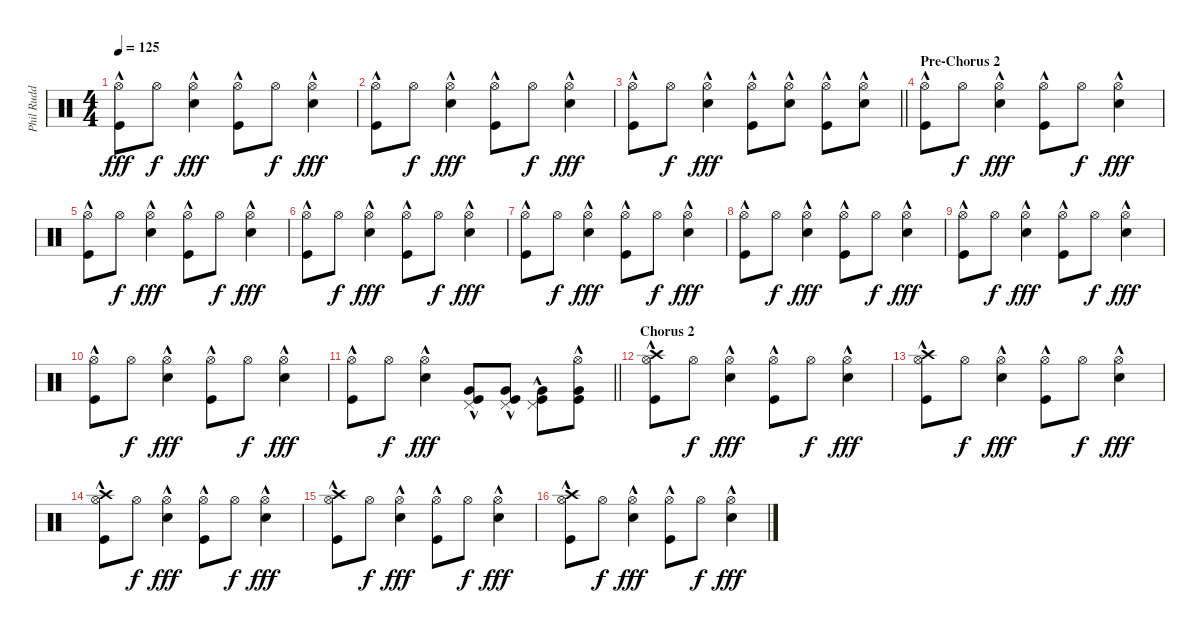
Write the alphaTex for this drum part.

\track ("Phil Rudd" "Phil Rudd") {instrument percussion}
\staff {score}
\articulation defaults
\ts (4 4)
\tempo 125
\clef neutral
\ks c
("Hi-Hat (open)" "Kick (hit)"{hac}).8{dy fff} "Hi-Hat (open)".8{dy f} ("Snare (hit) 2"{hac} "Hi-Hat (open)").4{dy fff} ("Hi-Hat (open)" "Kick (hit)"{hac}).8 "Hi-Hat (open)".8{dy f} ("Snare (hit) 2"{hac} "Hi-Hat (open)").4{dy fff} |
("Hi-Hat (open)" "Kick (hit)"{hac}).8 "Hi-Hat (open)".8{dy f} ("Snare (hit) 2"{hac} "Hi-Hat (open)").4{dy fff} ("Hi-Hat (open)" "Kick (hit)"{hac}).8 "Hi-Hat (open)".8{dy f} ("Snare (hit) 2"{hac} "Hi-Hat (open)").4{dy fff} |
\barLineRight lightlight
("Hi-Hat (open)" "Kick (hit)"{hac}).8 "Hi-Hat (open)".8{dy f} ("Snare (hit) 2"{hac} "Hi-Hat (open)").4{dy fff} ("Hi-Hat (open)"{hac} "Kick (hit)").8 ("Snare (hit) 2"{hac} "Hi-Hat (open)").8 ("Hi-Hat (open)"{hac} "Kick (hit)").8 ("Snare (hit) 2"{hac} "Hi-Hat (open)").8 |
\section ("" "Pre-Chorus 2")
("Hi-Hat (open)" "Kick (hit)"{hac}).8 "Hi-Hat (open)".8{dy f} ("Snare (hit) 2"{hac} "Hi-Hat (open)").4{dy fff} ("Hi-Hat (open)" "Kick (hit)"{hac}).8 "Hi-Hat (open)".8{dy f} ("Snare (hit) 2"{hac} "Hi-Hat (open)").4{dy fff} |
("Hi-Hat (open)" "Kick (hit)"{hac}).8 "Hi-Hat (open)".8{dy f} ("Snare (hit) 2"{hac} "Hi-Hat (open)").4{dy fff} ("Hi-Hat (open)" "Kick (hit)"{hac}).8 "Hi-Hat (open)".8{dy f} ("Snare (hit) 2"{hac} "Hi-Hat (open)").4{dy fff} |
("Hi-Hat (open)" "Kick (hit)"{hac}).8 "Hi-Hat (open)".8{dy f} ("Snare (hit) 2"{hac} "Hi-Hat (open)").4{dy fff} ("Hi-Hat (open)" "Kick (hit)"{hac}).8 "Hi-Hat (open)".8{dy f} ("Snare (hit) 2"{hac} "Hi-Hat (open)").4{dy fff} |
("Hi-Hat (open)" "Kick (hit)"{hac}).8 "Hi-Hat (open)".8{dy f} ("Snare (hit) 2"{hac} "Hi-Hat (open)").4{dy fff} ("Hi-Hat (open)" "Kick (hit)"{hac}).8 "Hi-Hat (open)".8{dy f} ("Snare (hit) 2"{hac} "Hi-Hat (open)").4{dy fff} |
("Hi-Hat (open)" "Kick (hit)"{hac}).8 "Hi-Hat (open)".8{dy f} ("Snare (hit) 2"{hac} "Hi-Hat (open)").4{dy fff} ("Hi-Hat (open)" "Kick (hit)"{hac}).8 "Hi-Hat (open)".8{dy f} ("Snare (hit) 2"{hac} "Hi-Hat (open)").4{dy fff} |
("Hi-Hat (open)" "Kick (hit)"{hac}).8 "Hi-Hat (open)".8{dy f} ("Snare (hit) 2"{hac} "Hi-Hat (open)").4{dy fff} ("Hi-Hat (open)" "Kick (hit)"{hac}).8 "Hi-Hat (open)".8{dy f} ("Snare (hit) 2"{hac} "Hi-Hat (open)").4{dy fff} |
("Hi-Hat (open)" "Kick (hit)"{hac}).8 "Hi-Hat (open)".8{dy f} ("Snare (hit) 2"{hac} "Hi-Hat (open)").4{dy fff} ("Hi-Hat (open)" "Kick (hit)"{hac}).8 "Hi-Hat (open)".8{dy f} ("Snare (hit) 2"{hac} "Hi-Hat (open)").4{dy fff} |
\barLineRight lightlight
("Hi-Hat (open)" "Kick (hit)"{hac}).8 "Hi-Hat (open)".8{dy f} ("Snare (hit) 2"{hac} "Hi-Hat (open)").4{dy fff} ("Very Low Tom (hit)" "Pedal Hi-Hat (hit)" "Kick (hit)"{hac}).8 ("Very Low Tom (hit)"{hac} "Pedal Hi-Hat (hit)" "Kick (hit)").8 ("Very Low Tom (hit)"{hac} "Pedal Hi-Hat (hit)" "Kick (hit)").8 ("Very Low Tom (hit)"{hac} "Hi-Hat (open)" "Kick (hit)").8 |
\section ("" "Chorus 2")
("Hi-Hat (open)" "Crash high (hit)" "Kick (hit)"{hac}).8 "Hi-Hat (open)".8{dy f} ("Snare (hit) 2"{hac} "Hi-Hat (open)").4{dy fff} ("Hi-Hat (open)" "Kick (hit)"{hac}).8 "Hi-Hat (open)".8{dy f} ("Snare (hit) 2"{hac} "Hi-Hat (open)").4{dy fff} |
("Hi-Hat (open)" "Crash high (hit)" "Kick (hit)"{hac}).8 "Hi-Hat (open)".8{dy f} ("Snare (hit) 2"{hac} "Hi-Hat (open)").4{dy fff} ("Hi-Hat (open)" "Kick (hit)"{hac}).8 "Hi-Hat (open)".8{dy f} ("Snare (hit) 2"{hac} "Hi-Hat (open)").4{dy fff} |
("Hi-Hat (open)" "Crash high (hit)" "Kick (hit)"{hac}).8 "Hi-Hat (open)".8{dy f} ("Snare (hit) 2"{hac} "Hi-Hat (open)").4{dy fff} ("Hi-Hat (open)" "Kick (hit)"{hac}).8 "Hi-Hat (open)".8{dy f} ("Snare (hit) 2"{hac} "Hi-Hat (open)").4{dy fff} |
("Hi-Hat (open)" "Crash high (hit)" "Kick (hit)"{hac}).8 "Hi-Hat (open)".8{dy f} ("Snare (hit) 2"{hac} "Hi-Hat (open)").4{dy fff} ("Hi-Hat (open)" "Kick (hit)"{hac}).8 "Hi-Hat (open)".8{dy f} ("Snare (hit) 2"{hac} "Hi-Hat (open)").4{dy fff} |
("Hi-Hat (open)" "Crash high (hit)" "Kick (hit)"{hac}).8 "Hi-Hat (open)".8{dy f} ("Snare (hit) 2"{hac} "Hi-Hat (open)").4{dy fff} ("Hi-Hat (open)" "Kick (hit)"{hac}).8 "Hi-Hat (open)".8{dy f} ("Snare (hit) 2"{hac} "Hi-Hat (open)").4{dy fff}
